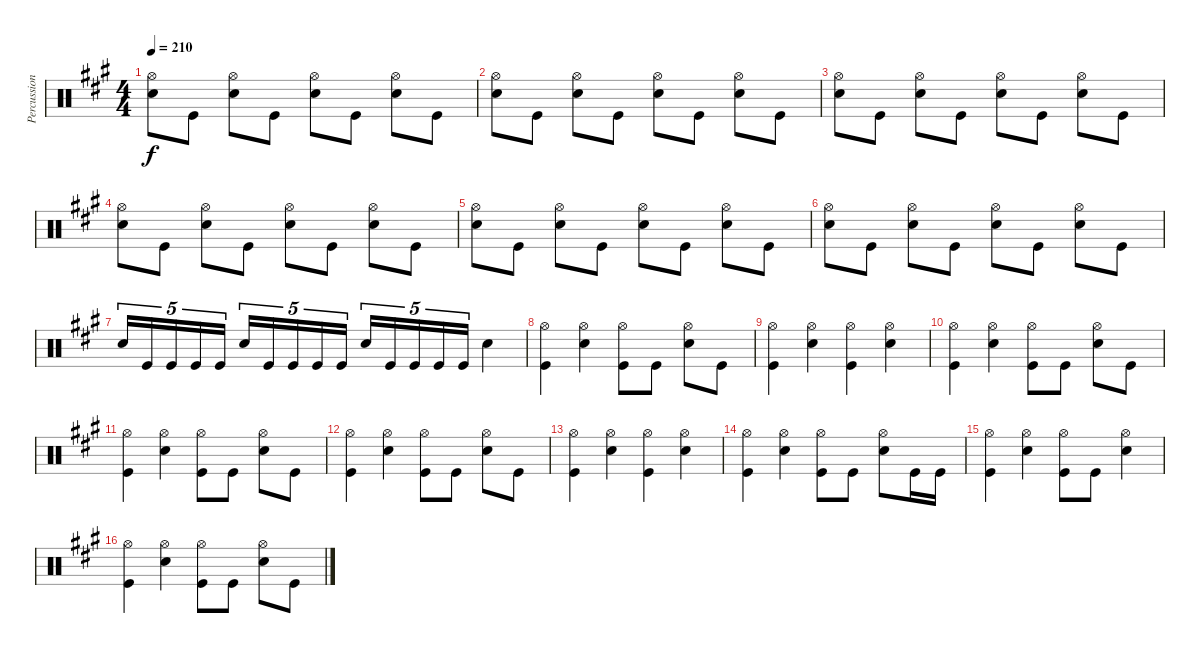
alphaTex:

\track ("Percussion" "Percussion") {instrument percussion}
\staff {score}
\articulation defaults
\ts (4 4)
\tempo 210
\clef neutral
\ks a
("Hi-Hat (open)" "Snare (hit) 2").8{dy f} "Kick (hit)".8 ("Hi-Hat (open)" "Snare (hit) 2").8 "Kick (hit)".8 ("Hi-Hat (open)" "Snare (hit) 2").8 "Kick (hit)".8 ("Hi-Hat (open)" "Snare (hit) 2").8 "Kick (hit)".8 |
("Hi-Hat (open)" "Snare (hit) 2").8 "Kick (hit)".8 ("Hi-Hat (open)" "Snare (hit) 2").8 "Kick (hit)".8 ("Hi-Hat (open)" "Snare (hit) 2").8 "Kick (hit)".8 ("Hi-Hat (open)" "Snare (hit) 2").8 "Kick (hit)".8 |
("Hi-Hat (open)" "Snare (hit) 2").8 "Kick (hit)".8 ("Hi-Hat (open)" "Snare (hit) 2").8 "Kick (hit)".8 ("Hi-Hat (open)" "Snare (hit) 2").8 "Kick (hit)".8 ("Hi-Hat (open)" "Snare (hit) 2").8 "Kick (hit)".8 |
("Hi-Hat (open)" "Snare (hit) 2").8 "Kick (hit)".8 ("Hi-Hat (open)" "Snare (hit) 2").8 "Kick (hit)".8 ("Hi-Hat (open)" "Snare (hit) 2").8 "Kick (hit)".8 ("Hi-Hat (open)" "Snare (hit) 2").8 "Kick (hit)".8 |
("Hi-Hat (open)" "Snare (hit) 2").8 "Kick (hit)".8 ("Hi-Hat (open)" "Snare (hit) 2").8 "Kick (hit)".8 ("Hi-Hat (open)" "Snare (hit) 2").8 "Kick (hit)".8 ("Hi-Hat (open)" "Snare (hit) 2").8 "Kick (hit)".8 |
("Hi-Hat (open)" "Snare (hit) 2").8 "Kick (hit)".8 ("Hi-Hat (open)" "Snare (hit) 2").8 "Kick (hit)".8 ("Hi-Hat (open)" "Snare (hit) 2").8 "Kick (hit)".8 ("Hi-Hat (open)" "Snare (hit) 2").8 "Kick (hit)".8 |
"Snare (hit) 2".16{tu (5 4)} "Kick (hit)".16{tu (5 4)} "Kick (hit)".16{tu (5 4)} "Kick (hit)".16{tu (5 4)} "Kick (hit)".16{tu (5 4)} "Snare (hit) 2".16{tu (5 4)} "Kick (hit)".16{tu (5 4)} "Kick (hit)".16{tu (5 4)} "Kick (hit)".16{tu (5 4)} "Kick (hit)".16{tu (5 4)} "Snare (hit) 2".16{tu (5 4)} "Kick (hit)".16{tu (5 4)} "Kick (hit)".16{tu (5 4)} "Kick (hit)".16{tu (5 4)} "Kick (hit)".16{tu (5 4)} "Snare (hit) 2".4 |
("Hi-Hat (open)" "Kick (hit)").4 ("Hi-Hat (open)" "Snare (hit) 2").4 ("Hi-Hat (open)" "Kick (hit)").8 "Kick (hit)".8 ("Hi-Hat (open)" "Snare (hit) 2").8 "Kick (hit)".8 |
("Hi-Hat (open)" "Kick (hit)").4 ("Hi-Hat (open)" "Snare (hit) 2").4 ("Hi-Hat (open)" "Kick (hit)").4 ("Hi-Hat (open)" "Snare (hit) 2").4 |
("Hi-Hat (open)" "Kick (hit)").4 ("Hi-Hat (open)" "Snare (hit) 2").4 ("Hi-Hat (open)" "Kick (hit)").8 "Kick (hit)".8 ("Hi-Hat (open)" "Snare (hit) 2").8 "Kick (hit)".8 |
("Hi-Hat (open)" "Kick (hit)").4 ("Hi-Hat (open)" "Snare (hit) 2").4 ("Hi-Hat (open)" "Kick (hit)").8 "Kick (hit)".8 ("Hi-Hat (open)" "Snare (hit) 2").8 "Kick (hit)".8 |
("Hi-Hat (open)" "Kick (hit)").4 ("Hi-Hat (open)" "Snare (hit) 2").4 ("Hi-Hat (open)" "Kick (hit)").8 "Kick (hit)".8 ("Hi-Hat (open)" "Snare (hit) 2").8 "Kick (hit)".8 |
("Hi-Hat (open)" "Kick (hit)").4 ("Hi-Hat (open)" "Snare (hit) 2").4 ("Hi-Hat (open)" "Kick (hit)").4 ("Hi-Hat (open)" "Snare (hit) 2").4 |
("Hi-Hat (open)" "Kick (hit)").4 ("Hi-Hat (open)" "Snare (hit) 2").4 ("Hi-Hat (open)" "Kick (hit)").8 "Kick (hit)".8 ("Hi-Hat (open)" "Snare (hit) 2").8 "Kick (hit)".16 "Kick (hit)".16 |
("Hi-Hat (open)" "Kick (hit)").4 ("Hi-Hat (open)" "Snare (hit) 2").4 ("Hi-Hat (open)" "Kick (hit)").8 "Kick (hit)".8 ("Hi-Hat (open)" "Snare (hit) 2").4 |
("Hi-Hat (open)" "Kick (hit)").4 ("Hi-Hat (open)" "Snare (hit) 2").4 ("Hi-Hat (open)" "Kick (hit)").8 "Kick (hit)".8 ("Hi-Hat (open)" "Snare (hit) 2").8 "Kick (hit)".8
